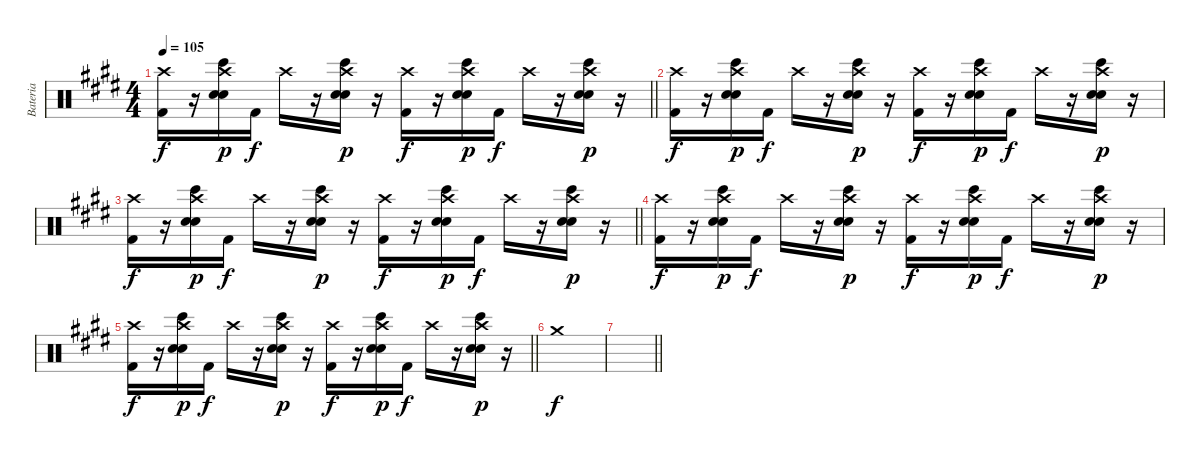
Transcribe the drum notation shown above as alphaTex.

\track ("Bateria" "Bateria") {instrument percussion}
\staff {score}
\articulation defaults
\ts (4 4)
\tempo 105
\clef neutral
\barLineRight lightlight
\ks c#minor
("Crash high (hit)" "Kick (hit) 2").16{dy f} r.16 ("Bongo High (hit)" "Crash high (hit)" "Electric Snare (hit)" "Snare (hit) 2").16{dy p} "Kick (hit) 2".16{dy f} "Crash high (hit)".16 r.16 ("Bongo High (hit)" "Crash high (hit)" "Electric Snare (hit)" "Snare (hit) 2").16{dy p} r.16 ("Crash high (hit)" "Kick (hit) 2").16{dy f} r.16 ("Bongo High (hit)" "Crash high (hit)" "Electric Snare (hit)" "Snare (hit) 2").16{dy p} "Kick (hit) 2".16{dy f} "Crash high (hit)".16 r.16 ("Bongo High (hit)" "Crash high (hit)" "Electric Snare (hit)" "Snare (hit) 2").16{dy p} r.16 |
("Crash high (hit)" "Kick (hit) 2").16{dy f} r.16 ("Bongo High (hit)" "Crash high (hit)" "Electric Snare (hit)" "Snare (hit) 2").16{dy p} "Kick (hit) 2".16{dy f} "Crash high (hit)".16 r.16 ("Bongo High (hit)" "Crash high (hit)" "Electric Snare (hit)" "Snare (hit) 2").16{dy p} r.16 ("Crash high (hit)" "Kick (hit) 2").16{dy f} r.16 ("Bongo High (hit)" "Crash high (hit)" "Electric Snare (hit)" "Snare (hit) 2").16{dy p} "Kick (hit) 2".16{dy f} "Crash high (hit)".16 r.16 ("Bongo High (hit)" "Crash high (hit)" "Electric Snare (hit)" "Snare (hit) 2").16{dy p} r.16 |
\barLineRight lightlight
("Crash high (hit)" "Kick (hit) 2").16{dy f} r.16 ("Bongo High (hit)" "Crash high (hit)" "Electric Snare (hit)" "Snare (hit) 2").16{dy p} "Kick (hit) 2".16{dy f} "Crash high (hit)".16 r.16 ("Bongo High (hit)" "Crash high (hit)" "Electric Snare (hit)" "Snare (hit) 2").16{dy p} r.16 ("Crash high (hit)" "Kick (hit) 2").16{dy f} r.16 ("Bongo High (hit)" "Crash high (hit)" "Electric Snare (hit)" "Snare (hit) 2").16{dy p} "Kick (hit) 2".16{dy f} "Crash high (hit)".16 r.16 ("Bongo High (hit)" "Crash high (hit)" "Electric Snare (hit)" "Snare (hit) 2").16{dy p} r.16 |
("Crash high (hit)" "Kick (hit) 2").16{dy f} r.16 ("Bongo High (hit)" "Crash high (hit)" "Electric Snare (hit)" "Snare (hit) 2").16{dy p} "Kick (hit) 2".16{dy f} "Crash high (hit)".16 r.16 ("Bongo High (hit)" "Crash high (hit)" "Electric Snare (hit)" "Snare (hit) 2").16{dy p} r.16 ("Crash high (hit)" "Kick (hit) 2").16{dy f} r.16 ("Bongo High (hit)" "Crash high (hit)" "Electric Snare (hit)" "Snare (hit) 2").16{dy p} "Kick (hit) 2".16{dy f} "Crash high (hit)".16 r.16 ("Bongo High (hit)" "Crash high (hit)" "Electric Snare (hit)" "Snare (hit) 2").16{dy p} r.16 |
\barLineRight lightlight
("Crash high (hit)" "Kick (hit) 2").16{dy f} r.16 ("Bongo High (hit)" "Crash high (hit)" "Electric Snare (hit)" "Snare (hit) 2").16{dy p} "Kick (hit) 2".16{dy f} "Crash high (hit)".16 r.16 ("Bongo High (hit)" "Crash high (hit)" "Electric Snare (hit)" "Snare (hit) 2").16{dy p} r.16 ("Crash high (hit)" "Kick (hit) 2").16{dy f} r.16 ("Bongo High (hit)" "Crash high (hit)" "Electric Snare (hit)" "Snare (hit) 2").16{dy p} "Kick (hit) 2".16{dy f} "Crash high (hit)".16 r.16 ("Bongo High (hit)" "Crash high (hit)" "Electric Snare (hit)" "Snare (hit) 2").16{dy p} r.16 |
"Crash medium (hit)".1{dy f} |
\barLineRight lightlight
